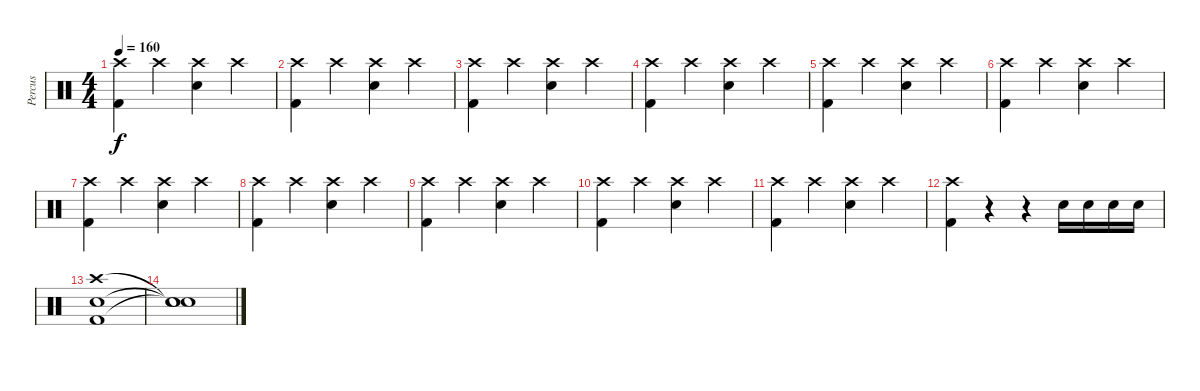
\track ("Percus" "Percus") {instrument percussion}
\staff {score}
\articulation defaults
\ts (4 4)
\tempo 160
\clef neutral
\ks c
("Crash high (hit)" "Kick (hit) 2").4{dy f} "Crash high (hit)".4 ("Crash high (hit)" "Electric Snare (hit)").4 "Crash high (hit)".4 |
("Crash high (hit)" "Kick (hit) 2").4 "Crash high (hit)".4 ("Crash high (hit)" "Electric Snare (hit)").4 "Crash high (hit)".4 |
("Crash high (hit)" "Kick (hit) 2").4 "Crash high (hit)".4 ("Crash high (hit)" "Electric Snare (hit)").4 "Crash high (hit)".4 |
("Crash high (hit)" "Kick (hit) 2").4 "Crash high (hit)".4 ("Crash high (hit)" "Electric Snare (hit)").4 "Crash high (hit)".4 |
("Crash high (hit)" "Kick (hit) 2").4 "Crash high (hit)".4 ("Crash high (hit)" "Electric Snare (hit)").4 "Crash high (hit)".4 |
("Crash high (hit)" "Kick (hit) 2").4 "Crash high (hit)".4 ("Crash high (hit)" "Electric Snare (hit)").4 "Crash high (hit)".4 |
("Crash high (hit)" "Kick (hit) 2").4 "Crash high (hit)".4 ("Crash high (hit)" "Electric Snare (hit)").4 "Crash high (hit)".4 |
("Crash high (hit)" "Kick (hit) 2").4 "Crash high (hit)".4 ("Crash high (hit)" "Electric Snare (hit)").4 "Crash high (hit)".4 |
("Crash high (hit)" "Kick (hit) 2").4 "Crash high (hit)".4 ("Crash high (hit)" "Electric Snare (hit)").4 "Crash high (hit)".4 |
("Crash high (hit)" "Kick (hit) 2").4 "Crash high (hit)".4 ("Crash high (hit)" "Electric Snare (hit)").4 "Crash high (hit)".4 |
("Crash high (hit)" "Kick (hit) 2").4 "Crash high (hit)".4 ("Crash high (hit)" "Electric Snare (hit)").4 "Crash high (hit)".4 |
("Crash high (hit)" "Kick (hit) 2").4 r.4 r.4 "Electric Snare (hit)".16 "Electric Snare (hit)".16 "Electric Snare (hit)".16 "Electric Snare (hit)".16 |
("Crash high (hit)" "Electric Snare (hit)" "Kick (hit) 2").1 |
("Snare (hit)"{t} "Snare (hit)"{t} "Snare (hit)"{t}).1
